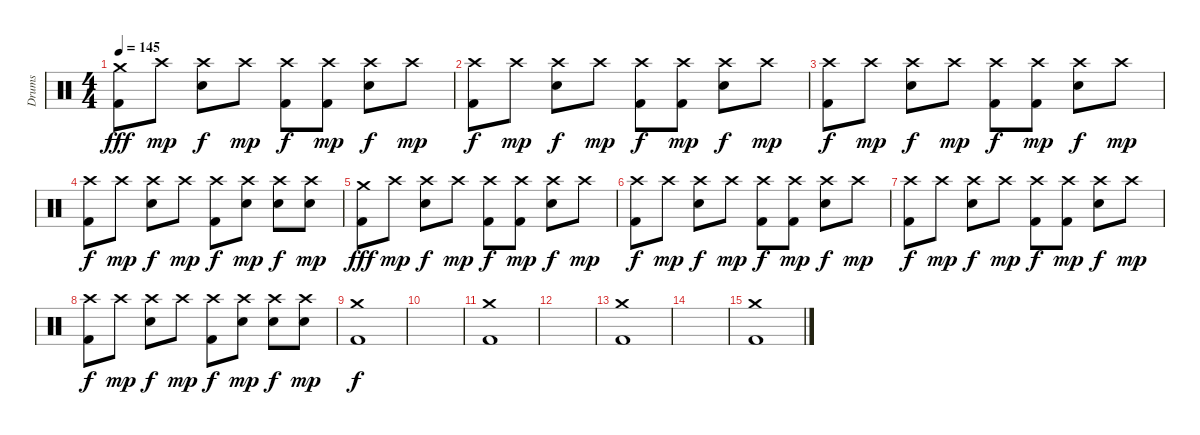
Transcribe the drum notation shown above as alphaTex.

\track ("Drums" "Drums") {instrument percussion}
\staff {score}
\articulation defaults
\ts (4 4)
\tempo 145
\clef neutral
\ks c
("Crash medium (hit)" "Kick (hit) 2").8{dy fff} "Crash high (hit)".8{dy mp} ("Crash high (hit)" "Snare (hit) 2").8{dy f} "Crash high (hit)".8{dy mp} ("Crash high (hit)" "Kick (hit) 2").8{dy f} ("Crash high (hit)" "Kick (hit) 2").8{dy mp} ("Crash high (hit)" "Snare (hit) 2").8{dy f} "Crash high (hit)".8{dy mp} |
("Crash high (hit)" "Kick (hit) 2").8{dy f} "Crash high (hit)".8{dy mp} ("Crash high (hit)" "Snare (hit) 2").8{dy f} "Crash high (hit)".8{dy mp} ("Crash high (hit)" "Kick (hit) 2").8{dy f} ("Crash high (hit)" "Kick (hit) 2").8{dy mp} ("Crash high (hit)" "Snare (hit) 2").8{dy f} "Crash high (hit)".8{dy mp} |
("Crash high (hit)" "Kick (hit) 2").8{dy f} "Crash high (hit)".8{dy mp} ("Crash high (hit)" "Snare (hit) 2").8{dy f} "Crash high (hit)".8{dy mp} ("Crash high (hit)" "Kick (hit) 2").8{dy f} ("Crash high (hit)" "Kick (hit) 2").8{dy mp} ("Crash high (hit)" "Snare (hit) 2").8{dy f} "Crash high (hit)".8{dy mp} |
("Crash high (hit)" "Kick (hit) 2").8{dy f} "Crash high (hit)".8{dy mp} ("Crash high (hit)" "Snare (hit) 2").8{dy f} "Crash high (hit)".8{dy mp} ("Crash high (hit)" "Kick (hit) 2").8{dy f} ("Crash high (hit)" "Snare (hit) 2").8{dy mp} ("Crash high (hit)" "Snare (hit) 2").8{dy f} ("Crash high (hit)" "Snare (hit) 2").8{dy mp} |
("Crash medium (hit)" "Kick (hit) 2").8{dy fff} "Crash high (hit)".8{dy mp} ("Crash high (hit)" "Snare (hit) 2").8{dy f} "Crash high (hit)".8{dy mp} ("Crash high (hit)" "Kick (hit) 2").8{dy f} ("Crash high (hit)" "Kick (hit) 2").8{dy mp} ("Crash high (hit)" "Snare (hit) 2").8{dy f} "Crash high (hit)".8{dy mp} |
("Crash high (hit)" "Kick (hit) 2").8{dy f} "Crash high (hit)".8{dy mp} ("Crash high (hit)" "Snare (hit) 2").8{dy f} "Crash high (hit)".8{dy mp} ("Crash high (hit)" "Kick (hit) 2").8{dy f} ("Crash high (hit)" "Kick (hit) 2").8{dy mp} ("Crash high (hit)" "Snare (hit) 2").8{dy f} "Crash high (hit)".8{dy mp} |
("Crash high (hit)" "Kick (hit) 2").8{dy f} "Crash high (hit)".8{dy mp} ("Crash high (hit)" "Snare (hit) 2").8{dy f} "Crash high (hit)".8{dy mp} ("Crash high (hit)" "Kick (hit) 2").8{dy f} ("Crash high (hit)" "Kick (hit) 2").8{dy mp} ("Crash high (hit)" "Snare (hit) 2").8{dy f} "Crash high (hit)".8{dy mp} |
("Crash high (hit)" "Kick (hit) 2").8{dy f} "Crash high (hit)".8{dy mp} ("Crash high (hit)" "Snare (hit) 2").8{dy f} "Crash high (hit)".8{dy mp} ("Crash high (hit)" "Kick (hit) 2").8{dy f} ("Crash high (hit)" "Snare (hit) 2").8{dy mp} ("Crash high (hit)" "Snare (hit) 2").8{dy f} ("Crash high (hit)" "Snare (hit) 2").8{dy mp} |
("Crash medium (hit)" "Kick (hit) 2").1{dy f} |
|
("Crash medium (hit)" "Kick (hit) 2").1 |
|
("Crash medium (hit)" "Kick (hit) 2").1 |
|
("Crash medium (hit)" "Kick (hit) 2").1
